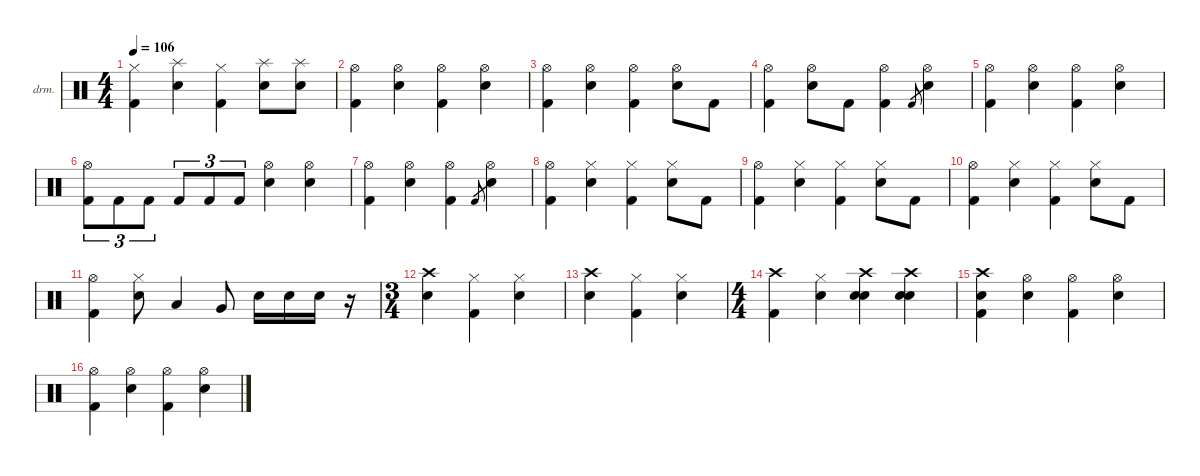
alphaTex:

\defaultSystemsLayout 4
\hideDynamics
\bracketExtendMode nobrackets
\firstSystemTrackNameOrientation horizontal
\otherSystemsTrackNameOrientation horizontal
\track ("Lars Ulrich" "drm.") {instrument percussion}
\staff {score}
\articulation defaults
\ts (4 4)
\tempo 106
\clef neutral
\ks c
("Hi-Hat (closed)" "Kick (hit) 2").4{dy f} ("Splash (hit)" "Snare (hit) 2").4 ("Hi-Hat (closed)" "Kick (hit) 2").4 ("Splash (hit)" "Snare (hit) 2").8 ("Splash (hit)" "Snare (hit) 2").8 |
("Hi-Hat (open)" "Kick (hit) 2").4 ("Hi-Hat (open)" "Snare (hit) 2").4 ("Hi-Hat (open)" "Kick (hit) 2").4 ("Hi-Hat (open)" "Snare (hit) 2").4 |
("Hi-Hat (open)" "Kick (hit) 2").4 ("Hi-Hat (open)" "Snare (hit) 2").4 ("Hi-Hat (open)" "Kick (hit) 2").4 ("Hi-Hat (open)" "Snare (hit) 2").8 "Kick (hit) 2".8 |
("Hi-Hat (open)" "Kick (hit) 2").4 ("Hi-Hat (open)" "Snare (hit) 2").8 "Kick (hit) 2".8 ("Hi-Hat (open)" "Kick (hit) 2").4 "Kick (hit) 2".8{gr dy mf} ("Hi-Hat (open)" "Snare (hit) 2").4{dy f} |
("Hi-Hat (open)" "Kick (hit) 2").4 ("Hi-Hat (open)" "Snare (hit) 2").4 ("Hi-Hat (open)" "Kick (hit) 2").4 ("Hi-Hat (open)" "Snare (hit) 2").4 |
("Hi-Hat (open)" "Kick (hit) 2").8{tu (3 2)} "Kick (hit) 2".8{tu (3 2) dy mf} "Kick (hit) 2".8{tu (3 2)} "Kick (hit) 2".8{tu (3 2) dy f} "Kick (hit) 2".8{tu (3 2)} "Kick (hit) 2".8{tu (3 2)} ("Hi-Hat (open)" "Snare (hit) 2").4 ("Hi-Hat (open)" "Snare (hit) 2").4 |
("Hi-Hat (open)" "Kick (hit) 2").4 ("Hi-Hat (open)" "Snare (hit) 2").4 ("Hi-Hat (open)" "Kick (hit) 2").4 "Kick (hit) 2".8{gr dy mf} ("Hi-Hat (open)" "Snare (hit) 2").4{dy f} |
("Hi-Hat (open)" "Kick (hit) 2").4 ("Hi-Hat (closed)" "Snare (hit) 2").4 ("Hi-Hat (closed)" "Kick (hit) 2").4 ("Hi-Hat (closed)" "Snare (hit) 2").8 "Kick (hit) 2".8 |
("Hi-Hat (open)" "Kick (hit) 2").4 ("Hi-Hat (closed)" "Snare (hit) 2").4 ("Hi-Hat (closed)" "Kick (hit) 2").4 ("Hi-Hat (closed)" "Snare (hit) 2").8 "Kick (hit) 2".8 |
("Hi-Hat (open)" "Kick (hit) 2").4 ("Hi-Hat (closed)" "Snare (hit) 2").4 ("Hi-Hat (closed)" "Kick (hit) 2").4 ("Hi-Hat (closed)" "Snare (hit) 2").8 "Kick (hit) 2".8 |
("Hi-Hat (open)" "Kick (hit) 2").4 ("Hi-Hat (closed)" "Snare (hit) 2").8 "Low Tom (hit)".4 "Very Low Tom (hit)".8 "Snare (hit) 2".16 "Snare (hit) 2".16 "Snare (hit) 2".16 r.16 |
\ts (3 4)
("Crash high (hit)" "Snare (hit) 2").4{dy fff} ("Hi-Hat (closed)" "Kick (hit) 2").4{dy f} ("Hi-Hat (closed)" "Snare (hit) 2").4 |
("Crash high (hit)" "Snare (hit) 2").4{dy fff} ("Hi-Hat (closed)" "Kick (hit) 2").4{dy f} ("Hi-Hat (closed)" "Snare (hit) 2").4 |
\ts (4 4)
("Crash high (hit)" "Kick (hit) 2").4 ("Hi-Hat (closed)" "Snare (hit) 2").4 ("Crash high (hit)" "Snare (hit) 2" "Snare (hit) 2").4 ("Crash high (hit)" "Snare (hit) 2" "Snare (hit) 2").4{dy fff} |
("Crash high (hit)" "Snare (hit) 2" "Kick (hit) 2").4{dy f} ("Hi-Hat (open)" "Snare (hit) 2").4 ("Hi-Hat (open)" "Kick (hit) 2").4 ("Hi-Hat (open)" "Snare (hit) 2").4 |
("Hi-Hat (open)" "Kick (hit) 2").4 ("Hi-Hat (open)" "Snare (hit) 2").4 ("Hi-Hat (open)" "Kick (hit) 2").4 ("Hi-Hat (open)" "Snare (hit) 2").4
